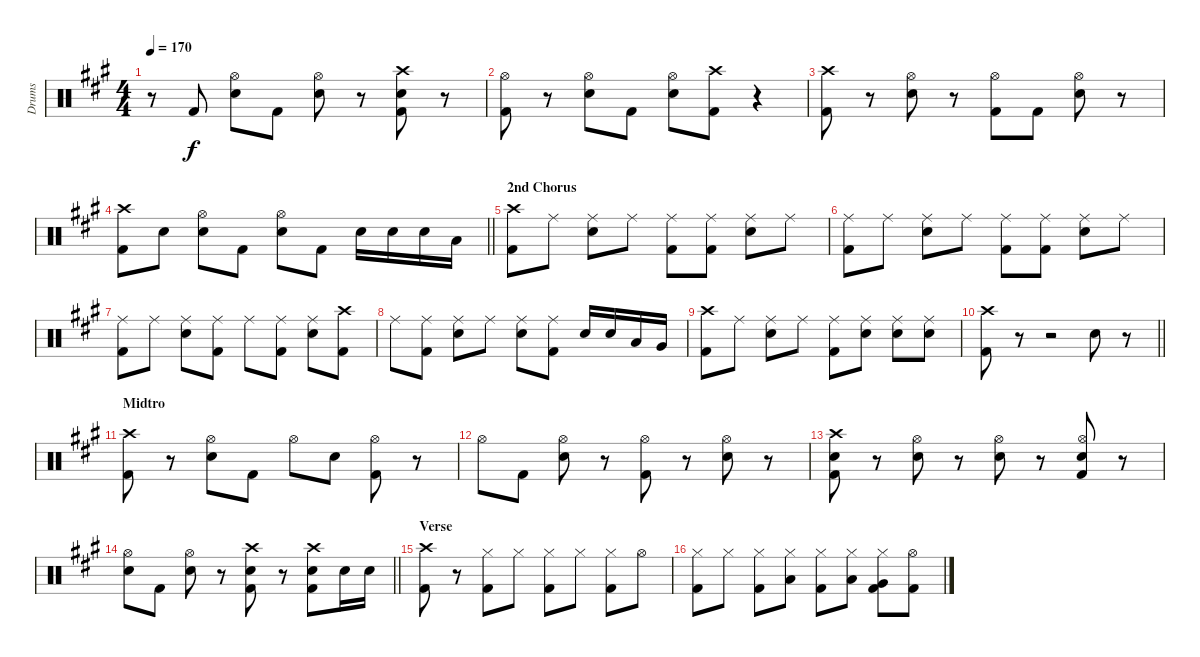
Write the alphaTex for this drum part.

\track ("Drums" "Drums") {instrument percussion}
\staff {score}
\articulation defaults
\ts (4 4)
\tempo 170
\clef neutral
\ks a
r.8{dy f} "Kick (hit) 2".8 ("Hi-Hat (open)" "Snare (hit) 2").8 "Kick (hit) 2".8 ("Hi-Hat (open)" "Snare (hit) 2").8 r.8 ("Crash high (hit)" "Snare (hit) 2" "Kick (hit) 2").8 r.8 |
("Hi-Hat (open)" "Kick (hit) 2").8 r.8 ("Hi-Hat (open)" "Snare (hit) 2").8 "Kick (hit) 2".8 ("Hi-Hat (open)" "Snare (hit) 2").8 ("Crash high (hit)" "Kick (hit) 2").8 r.4 |
("Crash high (hit)" "Kick (hit) 2").8 r.8 ("Hi-Hat (open)" "Snare (hit) 2").8 r.8 ("Hi-Hat (open)" "Kick (hit) 2").8 "Kick (hit) 2".8 ("Hi-Hat (open)" "Snare (hit) 2").8 r.8 |
\barLineRight lightlight
("Crash high (hit)" "Kick (hit) 2").8 "Snare (hit) 2".8 ("Hi-Hat (open)" "Snare (hit) 2").8 "Kick (hit) 2".8 ("Hi-Hat (open)" "Snare (hit) 2").8 "Kick (hit) 2".8 "Snare (hit) 2".16 "Snare (hit) 2".16 "Snare (hit) 2".16 "Low Tom (hit)".16 |
\section ("" "2nd Chorus")
("Crash high (hit)" "Kick (hit) 2").8 "Ride (middle)".8 ("Ride (middle)" "Snare (hit) 2").8 "Ride (middle)".8 ("Ride (middle)" "Kick (hit) 2").8 ("Ride (middle)" "Kick (hit) 2").8 ("Ride (middle)" "Snare (hit) 2").8 "Ride (middle)".8 |
("Ride (middle)" "Kick (hit) 2").8 "Ride (middle)".8 ("Ride (middle)" "Snare (hit) 2").8 "Ride (middle)".8 ("Ride (middle)" "Kick (hit) 2").8 ("Ride (middle)" "Kick (hit) 2").8 ("Ride (middle)" "Snare (hit) 2").8 "Ride (middle)".8 |
("Ride (middle)" "Kick (hit) 2").8 "Ride (middle)".8 ("Ride (middle)" "Snare (hit) 2").8 ("Ride (middle)" "Kick (hit) 2").8 "Ride (middle)".8 ("Ride (middle)" "Kick (hit) 2").8 ("Ride (middle)" "Snare (hit) 2").8 ("Crash high (hit)" "Kick (hit) 2").8 |
"Ride (middle)".8 ("Ride (middle)" "Kick (hit) 2").8 ("Ride (middle)" "Snare (hit) 2").8 "Ride (middle)".8 ("Ride (middle)" "Snare (hit) 2").8 ("Ride (middle)" "Kick (hit) 2").8 "Snare (hit) 2".16 "Snare (hit) 2".16 "Low Tom (hit)".16 "Very Low Tom (hit)".16 |
("Crash high (hit)" "Kick (hit) 2").8 "Ride (middle)".8 ("Ride (middle)" "Snare (hit) 2").8 "Ride (middle)".8 ("Ride (middle)" "Kick (hit) 2").8 ("Ride (middle)" "Snare (hit) 2").8 ("Ride (middle)" "Snare (hit) 2").8 ("Ride (middle)" "Snare (hit) 2").8 |
\barLineRight lightlight
("Crash high (hit)" "Kick (hit) 2").8 r.8 r.2 "Snare (hit) 2".8 r.8 |
\section ("" "Midtro")
("Crash high (hit)" "Kick (hit) 2").8 r.8 ("Hi-Hat (open)" "Snare (hit) 2").8 "Kick (hit) 2".8 "Hi-Hat (open)".8 "Snare (hit) 2".8 ("Hi-Hat (open)" "Kick (hit) 2").8 r.8 |
"Hi-Hat (open)".8 "Kick (hit) 2".8 ("Hi-Hat (open)" "Snare (hit) 2").8 r.8 ("Hi-Hat (open)" "Kick (hit) 2").8 r.8 ("Hi-Hat (open)" "Snare (hit) 2").8 r.8 |
("Crash high (hit)" "Snare (hit) 2" "Kick (hit) 2").8 r.8 ("Hi-Hat (open)" "Snare (hit) 2").8 r.8 ("Hi-Hat (open)" "Snare (hit) 2").8 r.8 ("Hi-Hat (open)" "Snare (hit) 2" "Kick (hit) 2").8 r.8 |
\barLineRight lightlight
("Hi-Hat (open)" "Snare (hit) 2").8 "Kick (hit) 2".8 ("Hi-Hat (open)" "Snare (hit) 2").8 r.8 ("Crash high (hit)" "Snare (hit) 2" "Kick (hit) 2").8 r.8 ("Crash high (hit)" "Snare (hit) 2" "Kick (hit) 2").8 "Snare (hit) 2".16 "Snare (hit) 2".16 |
\section ("" "Verse")
("Crash high (hit)" "Kick (hit) 2").8 r.8 ("Hi-Hat (closed)" "Kick (hit) 2").8 "Hi-Hat (closed)".8 ("Hi-Hat (closed)" "Kick (hit) 2").8 "Hi-Hat (closed)".8 ("Hi-Hat (closed)" "Kick (hit) 2").8 "Hi-Hat (open)".8 |
("Hi-Hat (closed)" "Kick (hit) 2").8 "Hi-Hat (closed)".8 ("Hi-Hat (closed)" "Kick (hit) 2").8 ("Hi-Hat (closed)" "Low Tom (hit)").8 ("Hi-Hat (closed)" "Kick (hit) 2").8 ("Hi-Hat (closed)" "Low Tom (hit)").8 ("Hi-Hat (closed)" "Very Low Tom (hit)" "Kick (hit) 2").8 ("Hi-Hat (open)" "Kick (hit) 2").8
